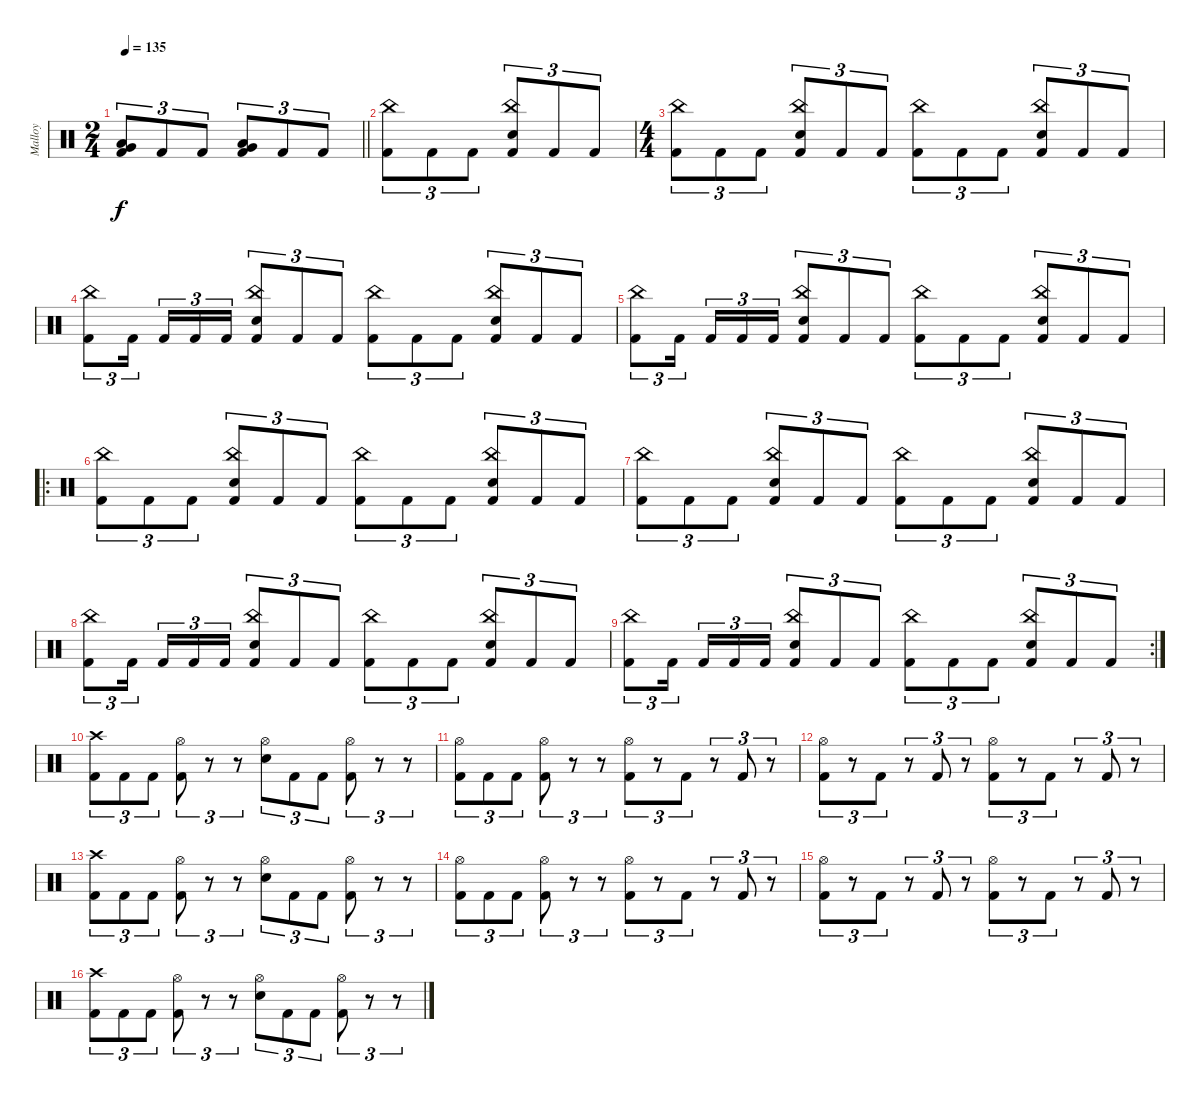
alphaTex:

\track ("Malloy" "Malloy") {instrument percussion}
\staff {score}
\articulation defaults
\ts (2 4)
\tempo 135
\clef neutral
\barLineRight lightlight
\ks c
("Kick (hit) 2" "Low Tom (hit)" "Very Low Tom (hit)").8{tu (3 2) dy f} "Kick (hit) 2".8{tu (3 2)} "Kick (hit) 2".8{tu (3 2)} ("Kick (hit) 2" "Very Low Tom (hit)" "Low Floor Tom (hit)").8{tu (3 2)} "Kick (hit) 2".8{tu (3 2)} "Kick (hit) 2".8{tu (3 2)} |
("Kick (hit) 2" "China (hit)").8{tu (3 2)} "Kick (hit) 2".8{tu (3 2)} "Kick (hit) 2".8{tu (3 2)} ("Kick (hit) 2" "Electric Snare (hit)" "China (hit)").8{tu (3 2)} "Kick (hit) 2".8{tu (3 2)} "Kick (hit) 2".8{tu (3 2)} |
\ts (4 4)
("Kick (hit) 2" "China (hit)").8{tu (3 2)} "Kick (hit) 2".8{tu (3 2)} "Kick (hit) 2".8{tu (3 2)} ("Kick (hit) 2" "Electric Snare (hit)" "China (hit)").8{tu (3 2)} "Kick (hit) 2".8{tu (3 2)} "Kick (hit) 2".8{tu (3 2)} ("Kick (hit) 2" "China (hit)").8{tu (3 2)} "Kick (hit) 2".8{tu (3 2)} "Kick (hit) 2".8{tu (3 2)} ("Kick (hit) 2" "Electric Snare (hit)" "China (hit)").8{tu (3 2)} "Kick (hit) 2".8{tu (3 2)} "Kick (hit) 2".8{tu (3 2)} |
("Kick (hit) 2" "China (hit)").8{tu (3 2)} "Kick (hit) 2".16{tu (3 2) beam splitsecondary} "Kick (hit) 2".16{tu (3 2)} "Kick (hit) 2".16{tu (3 2)} "Kick (hit) 2".16{tu (3 2)} ("Kick (hit) 2" "Electric Snare (hit)" "China (hit)").8{tu (3 2)} "Kick (hit) 2".8{tu (3 2)} "Kick (hit) 2".8{tu (3 2)} ("Kick (hit) 2" "China (hit)").8{tu (3 2)} "Kick (hit) 2".8{tu (3 2)} "Kick (hit) 2".8{tu (3 2)} ("Kick (hit) 2" "Electric Snare (hit)" "China (hit)").8{tu (3 2)} "Kick (hit) 2".8{tu (3 2)} "Kick (hit) 2".8{tu (3 2)} |
("Kick (hit) 2" "China (hit)").8{tu (3 2)} "Kick (hit) 2".16{tu (3 2) beam splitsecondary} "Kick (hit) 2".16{tu (3 2)} "Kick (hit) 2".16{tu (3 2)} "Kick (hit) 2".16{tu (3 2)} ("Kick (hit) 2" "Electric Snare (hit)" "China (hit)").8{tu (3 2)} "Kick (hit) 2".8{tu (3 2)} "Kick (hit) 2".8{tu (3 2)} ("Kick (hit) 2" "China (hit)").8{tu (3 2)} "Kick (hit) 2".8{tu (3 2)} "Kick (hit) 2".8{tu (3 2)} ("Kick (hit) 2" "Electric Snare (hit)" "China (hit)").8{tu (3 2)} "Kick (hit) 2".8{tu (3 2)} "Kick (hit) 2".8{tu (3 2)} |
\ro
("Kick (hit) 2" "China (hit)").8{tu (3 2)} "Kick (hit) 2".8{tu (3 2)} "Kick (hit) 2".8{tu (3 2)} ("Kick (hit) 2" "Electric Snare (hit)" "China (hit)").8{tu (3 2)} "Kick (hit) 2".8{tu (3 2)} "Kick (hit) 2".8{tu (3 2)} ("Kick (hit) 2" "China (hit)").8{tu (3 2)} "Kick (hit) 2".8{tu (3 2)} "Kick (hit) 2".8{tu (3 2)} ("Kick (hit) 2" "Electric Snare (hit)" "China (hit)").8{tu (3 2)} "Kick (hit) 2".8{tu (3 2)} "Kick (hit) 2".8{tu (3 2)} |
("Kick (hit) 2" "China (hit)").8{tu (3 2)} "Kick (hit) 2".8{tu (3 2)} "Kick (hit) 2".8{tu (3 2)} ("Kick (hit) 2" "Electric Snare (hit)" "China (hit)").8{tu (3 2)} "Kick (hit) 2".8{tu (3 2)} "Kick (hit) 2".8{tu (3 2)} ("Kick (hit) 2" "China (hit)").8{tu (3 2)} "Kick (hit) 2".8{tu (3 2)} "Kick (hit) 2".8{tu (3 2)} ("Kick (hit) 2" "Electric Snare (hit)" "China (hit)").8{tu (3 2)} "Kick (hit) 2".8{tu (3 2)} "Kick (hit) 2".8{tu (3 2)} |
("Kick (hit) 2" "China (hit)").8{tu (3 2)} "Kick (hit) 2".16{tu (3 2) beam splitsecondary} "Kick (hit) 2".16{tu (3 2)} "Kick (hit) 2".16{tu (3 2)} "Kick (hit) 2".16{tu (3 2)} ("Kick (hit) 2" "Electric Snare (hit)" "China (hit)").8{tu (3 2)} "Kick (hit) 2".8{tu (3 2)} "Kick (hit) 2".8{tu (3 2)} ("Kick (hit) 2" "China (hit)").8{tu (3 2)} "Kick (hit) 2".8{tu (3 2)} "Kick (hit) 2".8{tu (3 2)} ("Kick (hit) 2" "Electric Snare (hit)" "China (hit)").8{tu (3 2)} "Kick (hit) 2".8{tu (3 2)} "Kick (hit) 2".8{tu (3 2)} |
\rc 2
("Kick (hit) 2" "China (hit)").8{tu (3 2)} "Kick (hit) 2".16{tu (3 2) beam splitsecondary} "Kick (hit) 2".16{tu (3 2)} "Kick (hit) 2".16{tu (3 2)} "Kick (hit) 2".16{tu (3 2)} ("Kick (hit) 2" "Electric Snare (hit)" "China (hit)").8{tu (3 2)} "Kick (hit) 2".8{tu (3 2)} "Kick (hit) 2".8{tu (3 2)} ("Kick (hit) 2" "China (hit)").8{tu (3 2)} "Kick (hit) 2".8{tu (3 2)} "Kick (hit) 2".8{tu (3 2)} ("Kick (hit) 2" "Electric Snare (hit)" "China (hit)").8{tu (3 2)} "Kick (hit) 2".8{tu (3 2)} "Kick (hit) 2".8{tu (3 2)} |
("Kick (hit) 2" "Crash high (hit)").8{tu (3 2)} "Kick (hit) 2".8{tu (3 2)} "Kick (hit) 2".8{tu (3 2)} ("Kick (hit) 2" "Hi-Hat (open)").8{tu (3 2)} r.8{tu (3 2)} r.8{tu (3 2)} ("Electric Snare (hit)" "Hi-Hat (open)").8{tu (3 2)} "Kick (hit) 2".8{tu (3 2)} "Kick (hit) 2".8{tu (3 2)} ("Kick (hit) 2" "Hi-Hat (open)").8{tu (3 2)} r.8{tu (3 2)} r.8{tu (3 2)} |
("Kick (hit) 2" "Hi-Hat (open)").8{tu (3 2)} "Kick (hit) 2".8{tu (3 2)} "Kick (hit) 2".8{tu (3 2)} ("Kick (hit) 2" "Hi-Hat (open)").8{tu (3 2)} r.8{tu (3 2)} r.8{tu (3 2)} ("Kick (hit) 2" "Hi-Hat (open)").8{tu (3 2)} r.8{tu (3 2)} "Kick (hit) 2".8{tu (3 2)} r.8{tu (3 2)} "Kick (hit) 2".8{tu (3 2)} r.8{tu (3 2)} |
("Kick (hit) 2" "Hi-Hat (open)").8{tu (3 2)} r.8{tu (3 2)} "Kick (hit) 2".8{tu (3 2)} r.8{tu (3 2)} "Kick (hit) 2".8{tu (3 2)} r.8{tu (3 2)} ("Kick (hit) 2" "Hi-Hat (open)").8{tu (3 2)} r.8{tu (3 2)} "Kick (hit) 2".8{tu (3 2)} r.8{tu (3 2)} "Kick (hit) 2".8{tu (3 2)} r.8{tu (3 2)} |
("Kick (hit) 2" "Crash high (hit)").8{tu (3 2)} "Kick (hit) 2".8{tu (3 2)} "Kick (hit) 2".8{tu (3 2)} ("Kick (hit) 2" "Hi-Hat (open)").8{tu (3 2)} r.8{tu (3 2)} r.8{tu (3 2)} ("Electric Snare (hit)" "Hi-Hat (open)").8{tu (3 2)} "Kick (hit) 2".8{tu (3 2)} "Kick (hit) 2".8{tu (3 2)} ("Kick (hit) 2" "Hi-Hat (open)").8{tu (3 2)} r.8{tu (3 2)} r.8{tu (3 2)} |
("Kick (hit) 2" "Hi-Hat (open)").8{tu (3 2)} "Kick (hit) 2".8{tu (3 2)} "Kick (hit) 2".8{tu (3 2)} ("Kick (hit) 2" "Hi-Hat (open)").8{tu (3 2)} r.8{tu (3 2)} r.8{tu (3 2)} ("Kick (hit) 2" "Hi-Hat (open)").8{tu (3 2)} r.8{tu (3 2)} "Kick (hit) 2".8{tu (3 2)} r.8{tu (3 2)} "Kick (hit) 2".8{tu (3 2)} r.8{tu (3 2)} |
("Kick (hit) 2" "Hi-Hat (open)").8{tu (3 2)} r.8{tu (3 2)} "Kick (hit) 2".8{tu (3 2)} r.8{tu (3 2)} "Kick (hit) 2".8{tu (3 2)} r.8{tu (3 2)} ("Kick (hit) 2" "Hi-Hat (open)").8{tu (3 2)} r.8{tu (3 2)} "Kick (hit) 2".8{tu (3 2)} r.8{tu (3 2)} "Kick (hit) 2".8{tu (3 2)} r.8{tu (3 2)} |
("Kick (hit) 2" "Crash high (hit)").8{tu (3 2)} "Kick (hit) 2".8{tu (3 2)} "Kick (hit) 2".8{tu (3 2)} ("Kick (hit) 2" "Hi-Hat (open)").8{tu (3 2)} r.8{tu (3 2)} r.8{tu (3 2)} ("Electric Snare (hit)" "Hi-Hat (open)").8{tu (3 2)} "Kick (hit) 2".8{tu (3 2)} "Kick (hit) 2".8{tu (3 2)} ("Kick (hit) 2" "Hi-Hat (open)").8{tu (3 2)} r.8{tu (3 2)} r.8{tu (3 2)}
